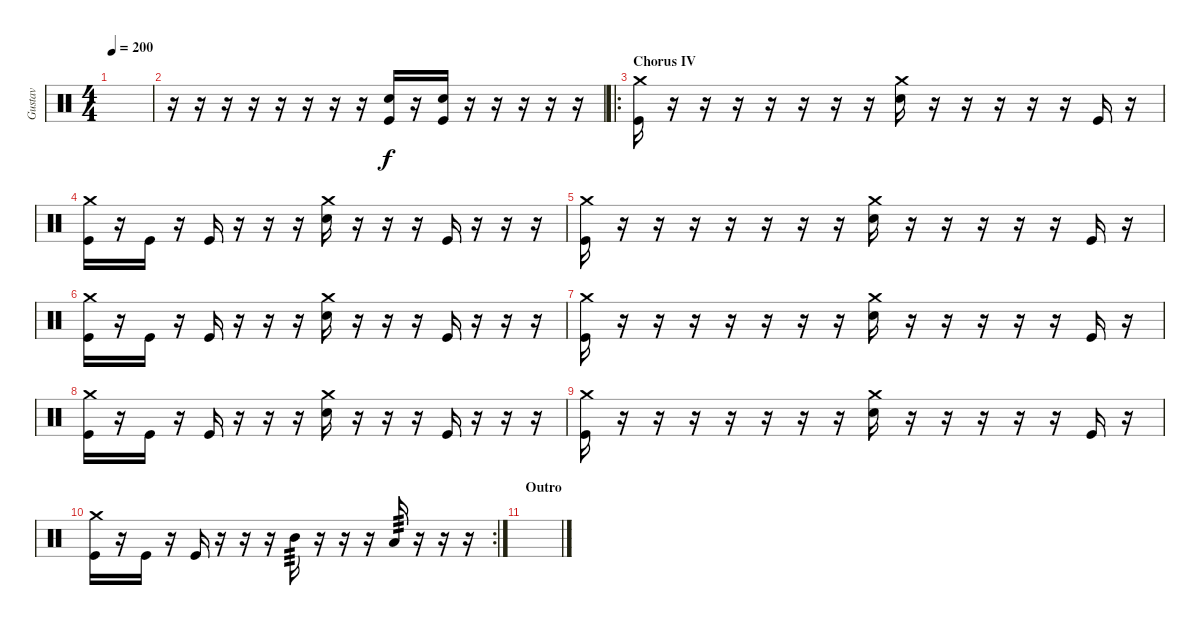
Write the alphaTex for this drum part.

\track ("Gustav" "Gustav") {instrument percussion}
\staff {score}
\articulation defaults
\ts (4 4)
\tempo 200
\clef neutral
\ks c
|
r.16 r.16 r.16 r.16 r.16 r.16 r.16 r.16 ("Kick (hit)" "Electric Snare (hit)").16 r.16 ("Electric Snare (hit)" "Kick (hit)").16 r.16 r.16 r.16 r.16 r.16 |
\ro
\section ("" "Chorus IV")
("Crash medium (hit)" "Kick (hit)").16{volume 13} r.16 r.16 r.16 r.16 r.16 r.16 r.16 ("Crash medium (hit)" "Electric Snare (hit)").16 r.16 r.16 r.16 r.16 r.16 "Kick (hit)".16 r.16 |
("Crash medium (hit)" "Kick (hit)").16 r.16 "Kick (hit)".16 r.16 "Kick (hit)".16 r.16 r.16 r.16 ("Crash medium (hit)" "Electric Snare (hit)").16 r.16 r.16 r.16 "Kick (hit)".16 r.16 r.16 r.16 |
("Crash medium (hit)" "Kick (hit)").16 r.16 r.16 r.16 r.16 r.16 r.16 r.16 ("Crash medium (hit)" "Electric Snare (hit)").16 r.16 r.16 r.16 r.16 r.16 "Kick (hit)".16 r.16 |
("Crash medium (hit)" "Kick (hit)").16 r.16 "Kick (hit)".16 r.16 "Kick (hit)".16 r.16 r.16 r.16 ("Crash medium (hit)" "Electric Snare (hit)").16 r.16 r.16 r.16 "Kick (hit)".16 r.16 r.16 r.16 |
("Crash medium (hit)" "Kick (hit)").16 r.16 r.16 r.16 r.16 r.16 r.16 r.16 ("Crash medium (hit)" "Electric Snare (hit)").16 r.16 r.16 r.16 r.16 r.16 "Kick (hit)".16 r.16 |
("Crash medium (hit)" "Kick (hit)").16 r.16 "Kick (hit)".16 r.16 "Kick (hit)".16 r.16 r.16 r.16 ("Crash medium (hit)" "Electric Snare (hit)").16 r.16 r.16 r.16 "Kick (hit)".16 r.16 r.16 r.16 |
("Crash medium (hit)" "Kick (hit)").16 r.16 r.16 r.16 r.16 r.16 r.16 r.16 ("Crash medium (hit)" "Electric Snare (hit)").16 r.16 r.16 r.16 r.16 r.16 "Kick (hit)".16 r.16 |
\rc 2
("Crash medium (hit)" "Kick (hit)").16 r.16 "Kick (hit)".16 r.16 "Kick (hit)".16 r.16 r.16 r.16 "Mid Tom (hit)".16{tp 3} r.16 r.16 r.16 "Low Tom (hit)".16{tp 3} r.16 r.16 r.16 |
\section ("" "Outro")
